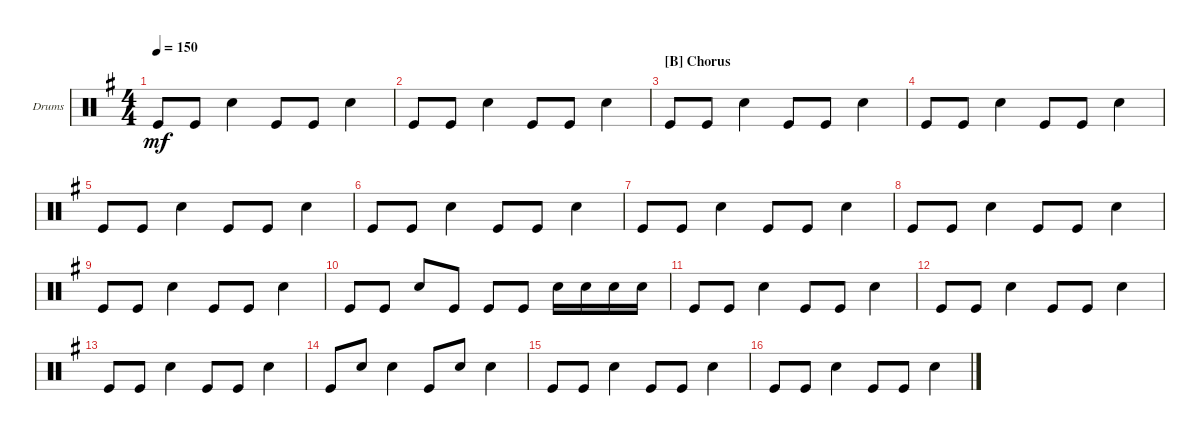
\defaultSystemsLayout 4
\bracketExtendMode groupsimilarinstruments
\firstSystemTrackNameOrientation horizontal
\otherSystemsTrackNameOrientation horizontal
\track ("Drumkit" "Drums") {instrument percussion}
\staff {score}
\articulation defaults
\ts (4 4)
\tempo 150
\clef neutral
\ks g "Kick (hit)".8{dy mf} "Kick (hit)".8 "Snare (hit) 2".4 "Kick (hit)".8 "Kick (hit)".8 "Snare (hit) 2".4
|
"Kick (hit)".8 "Kick (hit)".8 "Snare (hit) 2".4 "Kick (hit)".8 "Kick (hit)".8 "Snare (hit) 2".4 |
\section ("B" "Chorus")
"Kick (hit)".8 "Kick (hit)".8 "Snare (hit) 2".4 "Kick (hit)".8 "Kick (hit)".8 "Snare (hit) 2".4 |
"Kick (hit)".8 "Kick (hit)".8 "Snare (hit) 2".4 "Kick (hit)".8 "Kick (hit)".8 "Snare (hit) 2".4 |
"Kick (hit)".8 "Kick (hit)".8 "Snare (hit) 2".4 "Kick (hit)".8 "Kick (hit)".8 "Snare (hit) 2".4 |
"Kick (hit)".8 "Kick (hit)".8 "Snare (hit) 2".4 "Kick (hit)".8 "Kick (hit)".8 "Snare (hit) 2".4 |
"Kick (hit)".8 "Kick (hit)".8 "Snare (hit) 2".4 "Kick (hit)".8 "Kick (hit)".8 "Snare (hit) 2".4 |
"Kick (hit)".8 "Kick (hit)".8 "Snare (hit) 2".4 "Kick (hit)".8 "Kick (hit)".8 "Snare (hit) 2".4 |
"Kick (hit)".8 "Kick (hit)".8 "Snare (hit) 2".4 "Kick (hit)".8 "Kick (hit)".8 "Snare (hit) 2".4 |
"Kick (hit)".8 "Kick (hit)".8 "Snare (hit) 2".8 "Kick (hit)".8 "Kick (hit)".8 "Kick (hit)".8 "Snare (hit) 2".16 "Snare (hit) 2".16 "Snare (hit) 2".16 "Snare (hit) 2".16 |
"Kick (hit)".8 "Kick (hit)".8 "Snare (hit) 2".4 "Kick (hit)".8 "Kick (hit)".8 "Snare (hit) 2".4 |
"Kick (hit)".8 "Kick (hit)".8 "Snare (hit) 2".4 "Kick (hit)".8 "Kick (hit)".8 "Snare (hit) 2".4 |
"Kick (hit)".8 "Kick (hit)".8 "Snare (hit) 2".4 "Kick (hit)".8 "Kick (hit)".8 "Snare (hit) 2".4 |
"Kick (hit)".8 "Snare (hit) 2".8 "Snare (hit) 2".4 "Kick (hit)".8 "Snare (hit) 2".8 "Snare (hit) 2".4 |
"Kick (hit)".8 "Kick (hit)".8 "Snare (hit) 2".4 "Kick (hit)".8 "Kick (hit)".8 "Snare (hit) 2".4 |
"Kick (hit)".8 "Kick (hit)".8 "Snare (hit) 2".4 "Kick (hit)".8 "Kick (hit)".8 "Snare (hit) 2".4
